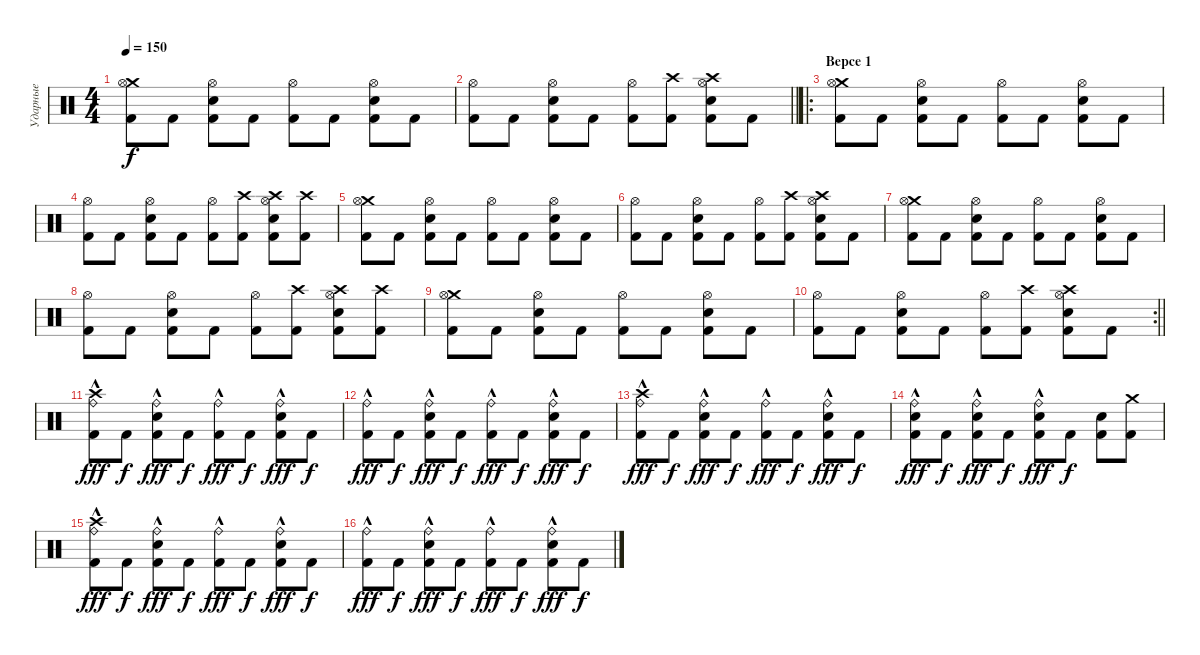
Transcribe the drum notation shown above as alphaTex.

\track ("Ударные" "Ударные") {instrument percussion}
\staff {score}
\articulation defaults
\ts (4 4)
\tempo 150
\clef neutral
\ks c
("Crash medium (hit)" "Hi-Hat (open)" "Kick (hit) 2").8{dy f} "Kick (hit) 2".8 ("Hi-Hat (open)" "Snare (hit) 2" "Kick (hit) 2").8 "Kick (hit) 2".8 ("Hi-Hat (open)" "Kick (hit) 2").8 "Kick (hit) 2".8 ("Hi-Hat (open)" "Snare (hit) 2" "Kick (hit) 2").8 "Kick (hit) 2".8 |
\barLineRight lightlight
("Hi-Hat (open)" "Kick (hit) 2").8 "Kick (hit) 2".8 ("Hi-Hat (open)" "Snare (hit) 2" "Kick (hit) 2").8 "Kick (hit) 2".8 ("Hi-Hat (open)" "Kick (hit) 2").8 ("Crash high (hit)" "Kick (hit) 2").8 ("Crash high (hit)" "Hi-Hat (open)" "Snare (hit) 2" "Kick (hit) 2").8 "Kick (hit) 2".8 |
\ro
\section ("" "Версе 1")
("Crash medium (hit)" "Hi-Hat (open)" "Kick (hit) 2").8 "Kick (hit) 2".8 ("Hi-Hat (open)" "Snare (hit) 2" "Kick (hit) 2").8 "Kick (hit) 2".8 ("Hi-Hat (open)" "Kick (hit) 2").8 "Kick (hit) 2".8 ("Hi-Hat (open)" "Snare (hit) 2" "Kick (hit) 2").8 "Kick (hit) 2".8 |
("Hi-Hat (open)" "Kick (hit) 2").8 "Kick (hit) 2".8 ("Hi-Hat (open)" "Snare (hit) 2" "Kick (hit) 2").8 "Kick (hit) 2".8 ("Hi-Hat (open)" "Kick (hit) 2").8 ("Crash high (hit)" "Kick (hit) 2").8 ("Crash high (hit)" "Hi-Hat (open)" "Snare (hit) 2" "Kick (hit) 2").8 ("Crash high (hit)" "Kick (hit) 2").8 |
("Crash medium (hit)" "Hi-Hat (open)" "Kick (hit) 2").8 "Kick (hit) 2".8 ("Hi-Hat (open)" "Snare (hit) 2" "Kick (hit) 2").8 "Kick (hit) 2".8 ("Hi-Hat (open)" "Kick (hit) 2").8 "Kick (hit) 2".8 ("Hi-Hat (open)" "Snare (hit) 2" "Kick (hit) 2").8 "Kick (hit) 2".8 |
("Hi-Hat (open)" "Kick (hit) 2").8 "Kick (hit) 2".8 ("Hi-Hat (open)" "Snare (hit) 2" "Kick (hit) 2").8 "Kick (hit) 2".8 ("Hi-Hat (open)" "Kick (hit) 2").8 ("Crash high (hit)" "Kick (hit) 2").8 ("Crash high (hit)" "Hi-Hat (open)" "Snare (hit) 2" "Kick (hit) 2").8 "Kick (hit) 2".8 |
("Crash medium (hit)" "Hi-Hat (open)" "Kick (hit) 2").8 "Kick (hit) 2".8 ("Hi-Hat (open)" "Snare (hit) 2" "Kick (hit) 2").8 "Kick (hit) 2".8 ("Hi-Hat (open)" "Kick (hit) 2").8 "Kick (hit) 2".8 ("Hi-Hat (open)" "Snare (hit) 2" "Kick (hit) 2").8 "Kick (hit) 2".8 |
("Hi-Hat (open)" "Kick (hit) 2").8 "Kick (hit) 2".8 ("Hi-Hat (open)" "Snare (hit) 2" "Kick (hit) 2").8 "Kick (hit) 2".8 ("Hi-Hat (open)" "Kick (hit) 2").8 ("Crash high (hit)" "Kick (hit) 2").8 ("Crash high (hit)" "Hi-Hat (open)" "Snare (hit) 2" "Kick (hit) 2").8 ("Crash high (hit)" "Kick (hit) 2").8 |
("Crash medium (hit)" "Hi-Hat (open)" "Kick (hit) 2").8 "Kick (hit) 2".8 ("Hi-Hat (open)" "Snare (hit) 2" "Kick (hit) 2").8 "Kick (hit) 2".8 ("Hi-Hat (open)" "Kick (hit) 2").8 "Kick (hit) 2".8 ("Hi-Hat (open)" "Snare (hit) 2" "Kick (hit) 2").8 "Kick (hit) 2".8 |
\rc 2
\barLineRight lightlight
("Hi-Hat (open)" "Kick (hit) 2").8 "Kick (hit) 2".8 ("Hi-Hat (open)" "Snare (hit) 2" "Kick (hit) 2").8 "Kick (hit) 2".8 ("Hi-Hat (open)" "Kick (hit) 2").8 ("Crash high (hit)" "Kick (hit) 2").8 ("Crash high (hit)" "Hi-Hat (open)" "Snare (hit) 2" "Kick (hit) 2").8 "Kick (hit) 2".8 |
("Crash high (hit)" "Ride (bell)"{hac} "Kick (hit) 2").8{dy fff} "Kick (hit) 2".8{dy f} ("Ride (bell)"{hac} "Snare (hit) 2" "Kick (hit) 2").8{dy fff} "Kick (hit) 2".8{dy f} ("Ride (bell)"{hac} "Kick (hit) 2").8{dy fff} "Kick (hit) 2".8{dy f} ("Ride (bell)"{hac} "Snare (hit) 2" "Kick (hit) 2").8{dy fff} "Kick (hit) 2".8{dy f} |
("Ride (bell)"{hac} "Kick (hit) 2").8{dy fff} "Kick (hit) 2".8{dy f} ("Ride (bell)"{hac} "Snare (hit) 2" "Kick (hit) 2").8{dy fff} "Kick (hit) 2".8{dy f} ("Ride (bell)"{hac} "Kick (hit) 2").8{dy fff} "Kick (hit) 2".8{dy f} ("Ride (bell)"{hac} "Snare (hit) 2" "Kick (hit) 2").8{dy fff} "Kick (hit) 2".8{dy f} |
("Crash high (hit)" "Ride (bell)"{hac} "Kick (hit) 2").8{dy fff} "Kick (hit) 2".8{dy f} ("Ride (bell)"{hac} "Snare (hit) 2" "Kick (hit) 2").8{dy fff} "Kick (hit) 2".8{dy f} ("Ride (bell)"{hac} "Kick (hit) 2").8{dy fff} "Kick (hit) 2".8{dy f} ("Ride (bell)"{hac} "Snare (hit) 2" "Kick (hit) 2").8{dy fff} "Kick (hit) 2".8{dy f} |
("Ride (bell)"{hac} "Snare (hit) 2" "Kick (hit) 2").8{dy fff} "Kick (hit) 2".8{dy f} ("Ride (bell)"{hac} "Snare (hit) 2" "Kick (hit) 2").8{dy fff} "Kick (hit) 2".8{dy f} ("Ride (bell)"{hac} "Snare (hit) 2" "Kick (hit) 2").8{dy fff} "Kick (hit) 2".8{dy f} ("Snare (hit) 2" "Kick (hit) 2").8 ("Crash medium (hit)" "Kick (hit) 2").8 |
("Crash high (hit)" "Ride (bell)"{hac} "Kick (hit) 2").8{dy fff} "Kick (hit) 2".8{dy f} ("Ride (bell)"{hac} "Snare (hit) 2" "Kick (hit) 2").8{dy fff} "Kick (hit) 2".8{dy f} ("Ride (bell)"{hac} "Kick (hit) 2").8{dy fff} "Kick (hit) 2".8{dy f} ("Ride (bell)"{hac} "Snare (hit) 2" "Kick (hit) 2").8{dy fff} "Kick (hit) 2".8{dy f} |
("Ride (bell)"{hac} "Kick (hit) 2").8{dy fff} "Kick (hit) 2".8{dy f} ("Ride (bell)"{hac} "Snare (hit) 2" "Kick (hit) 2").8{dy fff} "Kick (hit) 2".8{dy f} ("Ride (bell)"{hac} "Kick (hit) 2").8{dy fff} "Kick (hit) 2".8{dy f} ("Ride (bell)"{hac} "Snare (hit) 2" "Kick (hit) 2").8{dy fff} "Kick (hit) 2".8{dy f}
